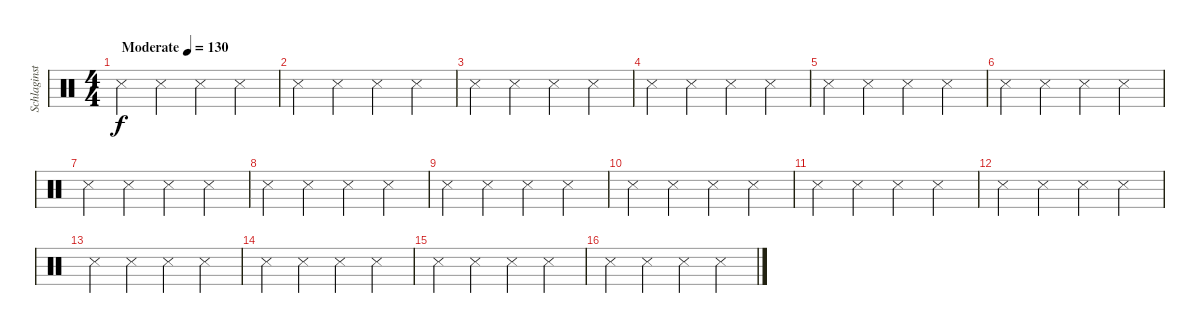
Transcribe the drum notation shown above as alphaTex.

\track ("Schlaginstrumente - Auswahl" "Schlaginst") {instrument percussion}
\staff {score}
\articulation defaults
\ts (4 4)
\tempo (130 "Moderate")
\clef neutral
\ks c "Metronome (hit)".4{dy f} "Metronome (hit)".4 "Metronome (hit)".4 "Metronome (hit)".4
|
"Metronome (hit)".4 "Metronome (hit)".4 "Metronome (hit)".4 "Metronome (hit)".4 |
"Metronome (hit)".4 "Metronome (hit)".4 "Metronome (hit)".4 "Metronome (hit)".4 |
"Metronome (hit)".4 "Metronome (hit)".4 "Metronome (hit)".4 "Metronome (hit)".4 |
"Metronome (hit)".4 "Metronome (hit)".4 "Metronome (hit)".4 "Metronome (hit)".4 |
"Metronome (hit)".4 "Metronome (hit)".4 "Metronome (hit)".4 "Metronome (hit)".4 |
"Metronome (hit)".4 "Metronome (hit)".4 "Metronome (hit)".4 "Metronome (hit)".4 |
"Metronome (hit)".4 "Metronome (hit)".4 "Metronome (hit)".4 "Metronome (hit)".4 |
"Metronome (hit)".4 "Metronome (hit)".4 "Metronome (hit)".4 "Metronome (hit)".4 |
"Metronome (hit)".4 "Metronome (hit)".4 "Metronome (hit)".4 "Metronome (hit)".4 |
"Metronome (hit)".4 "Metronome (hit)".4 "Metronome (hit)".4 "Metronome (hit)".4 |
"Metronome (hit)".4 "Metronome (hit)".4 "Metronome (hit)".4 "Metronome (hit)".4 |
"Metronome (hit)".4 "Metronome (hit)".4 "Metronome (hit)".4 "Metronome (hit)".4 |
"Metronome (hit)".4 "Metronome (hit)".4 "Metronome (hit)".4 "Metronome (hit)".4 |
"Metronome (hit)".4 "Metronome (hit)".4 "Metronome (hit)".4 "Metronome (hit)".4 |
"Metronome (hit)".4 "Metronome (hit)".4 "Metronome (hit)".4 "Metronome (hit)".4
